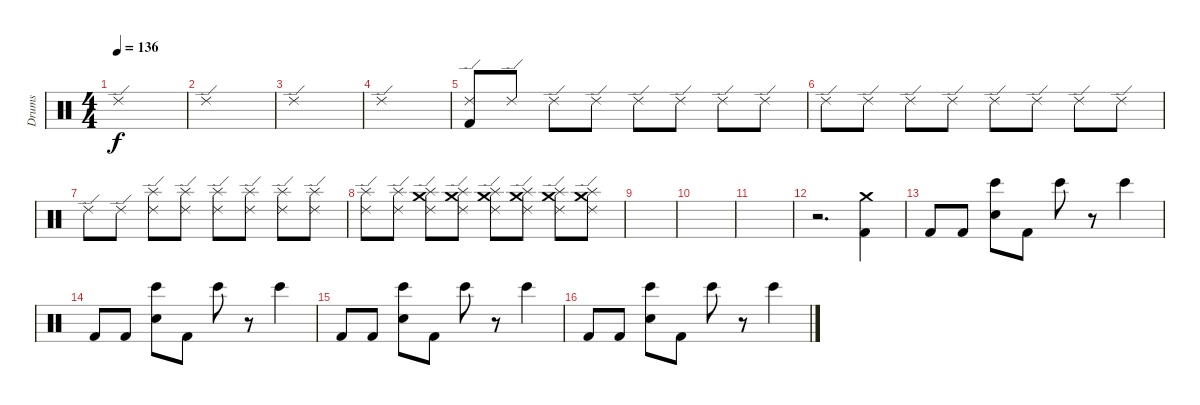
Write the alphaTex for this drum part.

\track ("Drums" "Drums") {instrument percussion}
\staff {score}
\articulation defaults
\ts (4 4)
\tempo 136
\clef neutral
\ks c "Ride (edge) 2".1{dy f}
|
"Ride (edge) 2".1 |
"Ride (edge) 2".1 |
"Ride (edge) 2".1 |
("Ride (edge) 2" "Kick (hit) 2").8 "Ride (edge) 2".8 "Ride (edge) 2".8 "Ride (edge) 2".8 "Ride (edge) 2".8 "Ride (edge) 2".8 "Ride (edge) 2".8 "Ride (edge) 2".8 |
"Ride (edge) 2".8 "Ride (edge) 2".8 "Ride (edge) 2".8 "Ride (edge) 2".8 "Ride (edge) 2".8 "Ride (edge) 2".8 "Ride (edge) 2".8 "Ride (edge) 2".8 |
"Ride (edge) 2".8 "Ride (edge) 2".8 ("Ride (edge) 2" "Splash (hit)").8 ("Ride (edge) 2" "Splash (hit)").8 ("Ride (edge) 2" "Splash (hit)").8 ("Ride (edge) 2" "Splash (hit)").8 ("Ride (edge) 2" "Splash (hit)").8 ("Ride (edge) 2" "Splash (hit)").8 |
("Ride (edge) 2" "Splash (hit)").8 ("Ride (edge) 2" "Splash (hit)").8 ("Ride (edge) 2" "Splash (hit)" "Crash medium (hit)").8 ("Ride (edge) 2" "Splash (hit)" "Crash medium (hit)").8 ("Ride (edge) 2" "Splash (hit)" "Crash medium (hit)").8 ("Ride (edge) 2" "Splash (hit)" "Crash medium (hit)").8 ("Ride (edge) 2" "Splash (hit)" "Crash medium (hit)").8 ("Ride (edge) 2" "Splash (hit)" "Crash medium (hit)").8 |
|
|
|
r.2{d} ("Crash medium (hit)" "Kick (hit) 2").4 |
"Kick (hit) 2".8 "Kick (hit) 2".8 ("Bongo High (hit)" "Electric Snare (hit)").8 "Kick (hit) 2".8 "Bongo High (hit)".8 r.8 "Bongo High (hit)".4 |
"Kick (hit) 2".8 "Kick (hit) 2".8 ("Bongo High (hit)" "Electric Snare (hit)").8 "Kick (hit) 2".8 "Bongo High (hit)".8 r.8 "Bongo High (hit)".4 |
"Kick (hit) 2".8 "Kick (hit) 2".8 ("Bongo High (hit)" "Electric Snare (hit)").8 "Kick (hit) 2".8 "Bongo High (hit)".8 r.8 "Bongo High (hit)".4 |
"Kick (hit) 2".8 "Kick (hit) 2".8 ("Bongo High (hit)" "Electric Snare (hit)").8 "Kick (hit) 2".8 "Bongo High (hit)".8 r.8 "Bongo High (hit)".4
